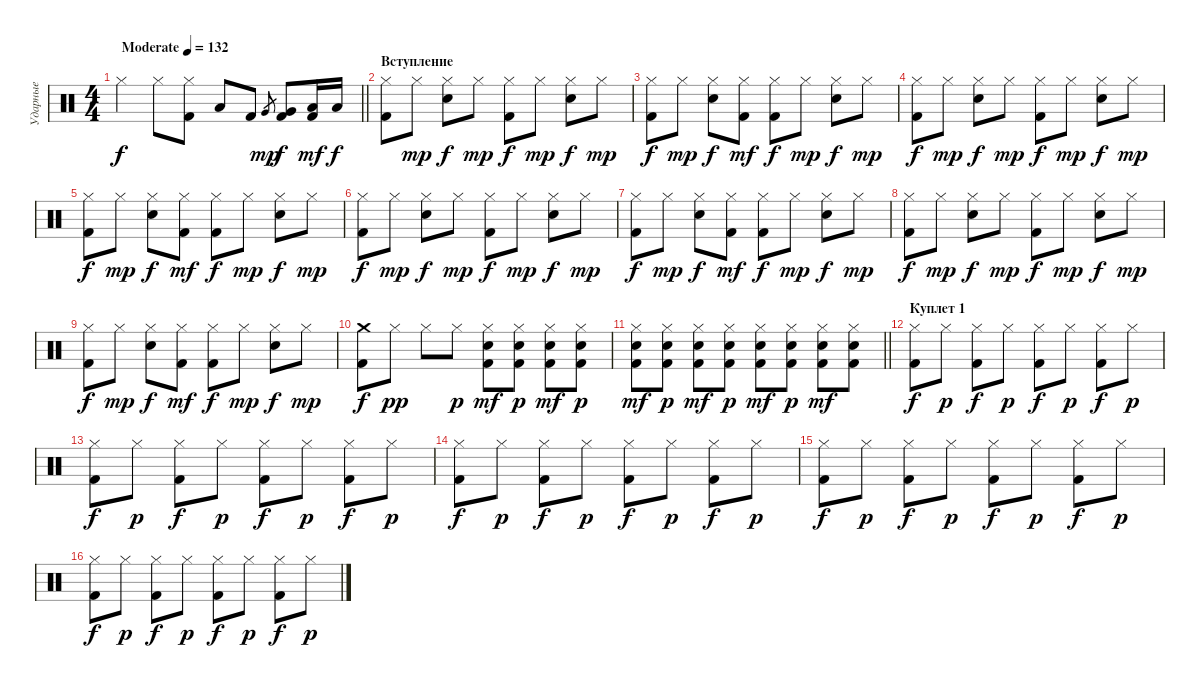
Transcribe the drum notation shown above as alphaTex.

\track ("Ударные" "Ударные") {instrument percussion}
\staff {score}
\articulation defaults
\ts (4 4)
\tempo (132 "Moderate")
\clef neutral
\barLineRight lightlight
\ks c "Hi-Hat (closed)".4{dy f} "Hi-Hat (closed)".8
("Hi-Hat (closed)" "Kick (hit) 2").8 "Low Tom (hit)".8 "Kick (hit) 2".8 "Very Low Tom (hit)".8{gr dy mp} ("Very Low Tom (hit)" "Kick (hit) 2").8{dy f} ("Low Floor Tom (hit)" "Kick (hit) 2").16{dy mf} "Low Floor Tom (hit)".16{dy f} |
\section ("" "Вступление")
("Hi-Hat (closed)" "Kick (hit) 2").8 "Hi-Hat (closed)".8{dy mp} ("Hi-Hat (closed)" "Snare (hit) 2").8{dy f} "Hi-Hat (closed)".8{dy mp} ("Hi-Hat (closed)" "Kick (hit) 2").8{dy f} "Hi-Hat (closed)".8{dy mp} ("Hi-Hat (closed)" "Snare (hit) 2").8{dy f} "Hi-Hat (closed)".8{dy mp} |
("Hi-Hat (closed)" "Kick (hit) 2").8{dy f} "Hi-Hat (closed)".8{dy mp} ("Hi-Hat (closed)" "Snare (hit) 2").8{dy f} ("Hi-Hat (closed)" "Kick (hit) 2").8{dy mf} ("Hi-Hat (closed)" "Kick (hit) 2").8{dy f} "Hi-Hat (closed)".8{dy mp} ("Hi-Hat (closed)" "Snare (hit) 2").8{dy f} "Hi-Hat (closed)".8{dy mp} |
("Hi-Hat (closed)" "Kick (hit) 2").8{dy f} "Hi-Hat (closed)".8{dy mp} ("Hi-Hat (closed)" "Snare (hit) 2").8{dy f} "Hi-Hat (closed)".8{dy mp} ("Hi-Hat (closed)" "Kick (hit) 2").8{dy f} "Hi-Hat (closed)".8{dy mp} ("Hi-Hat (closed)" "Snare (hit) 2").8{dy f} "Hi-Hat (closed)".8{dy mp} |
("Hi-Hat (closed)" "Kick (hit) 2").8{dy f} "Hi-Hat (closed)".8{dy mp} ("Hi-Hat (closed)" "Snare (hit) 2").8{dy f} ("Hi-Hat (closed)" "Kick (hit) 2").8{dy mf} ("Hi-Hat (closed)" "Kick (hit) 2").8{dy f} "Hi-Hat (closed)".8{dy mp} ("Hi-Hat (closed)" "Snare (hit) 2").8{dy f} "Hi-Hat (closed)".8{dy mp} |
("Hi-Hat (closed)" "Kick (hit) 2").8{dy f} "Hi-Hat (closed)".8{dy mp} ("Hi-Hat (closed)" "Snare (hit) 2").8{dy f} "Hi-Hat (closed)".8{dy mp} ("Hi-Hat (closed)" "Kick (hit) 2").8{dy f} "Hi-Hat (closed)".8{dy mp} ("Hi-Hat (closed)" "Snare (hit) 2").8{dy f} "Hi-Hat (closed)".8{dy mp} |
("Hi-Hat (closed)" "Kick (hit) 2").8{dy f} "Hi-Hat (closed)".8{dy mp} ("Hi-Hat (closed)" "Snare (hit) 2").8{dy f} ("Hi-Hat (closed)" "Kick (hit) 2").8{dy mf} ("Hi-Hat (closed)" "Kick (hit) 2").8{dy f} "Hi-Hat (closed)".8{dy mp} ("Hi-Hat (closed)" "Snare (hit) 2").8{dy f} "Hi-Hat (closed)".8{dy mp} |
("Hi-Hat (closed)" "Kick (hit) 2").8{dy f} "Hi-Hat (closed)".8{dy mp} ("Hi-Hat (closed)" "Snare (hit) 2").8{dy f} "Hi-Hat (closed)".8{dy mp} ("Hi-Hat (closed)" "Kick (hit) 2").8{dy f} "Hi-Hat (closed)".8{dy mp} ("Hi-Hat (closed)" "Snare (hit) 2").8{dy f} "Hi-Hat (closed)".8{dy mp} |
("Hi-Hat (closed)" "Kick (hit) 2").8{dy f} "Hi-Hat (closed)".8{dy mp} ("Hi-Hat (closed)" "Snare (hit) 2").8{dy f} ("Hi-Hat (closed)" "Kick (hit) 2").8{dy mf} ("Hi-Hat (closed)" "Kick (hit) 2").8{dy f} "Hi-Hat (closed)".8{dy mp} ("Hi-Hat (closed)" "Snare (hit) 2").8{dy f} "Hi-Hat (closed)".8{dy mp} |
("Crash medium (hit)" "Kick (hit) 2").8{dy f} "Hi-Hat (closed)".8{dy pp} "Hi-Hat (closed)".8 "Hi-Hat (closed)".8{dy p} ("Snare (hit) 2" "Kick (hit) 2" "Hi-Hat (closed)").8{dy mf} ("Snare (hit) 2" "Kick (hit) 2" "Hi-Hat (closed)").8{dy p} ("Snare (hit) 2" "Kick (hit) 2" "Hi-Hat (closed)").8{dy mf} ("Snare (hit) 2" "Kick (hit) 2" "Hi-Hat (closed)").8{dy p} |
\barLineRight lightlight
("Snare (hit) 2" "Kick (hit) 2" "Hi-Hat (closed)").8{dy mf} ("Snare (hit) 2" "Kick (hit) 2" "Hi-Hat (closed)").8{dy p} ("Snare (hit) 2" "Kick (hit) 2" "Hi-Hat (closed)").8{dy mf} ("Snare (hit) 2" "Kick (hit) 2" "Hi-Hat (closed)").8{dy p} ("Snare (hit) 2" "Kick (hit) 2" "Hi-Hat (closed)").8{dy mf} ("Snare (hit) 2" "Kick (hit) 2" "Hi-Hat (closed)").8{dy p} ("Snare (hit) 2" "Kick (hit) 2" "Hi-Hat (closed)").8{dy mf} ("Snare (hit) 2" "Kick (hit) 2" "Hi-Hat (closed)").8 |
\section ("" "Куплет 1")
("Hi-Hat (closed)" "Kick (hit) 2").8{dy f} "Hi-Hat (closed)".8{dy p} ("Hi-Hat (closed)" "Kick (hit) 2").8{dy f} "Hi-Hat (closed)".8{dy p} ("Hi-Hat (closed)" "Kick (hit) 2").8{dy f} "Hi-Hat (closed)".8{dy p} ("Hi-Hat (closed)" "Kick (hit) 2").8{dy f} "Hi-Hat (closed)".8{dy p} |
("Hi-Hat (closed)" "Kick (hit) 2").8{dy f} "Hi-Hat (closed)".8{dy p} ("Hi-Hat (closed)" "Kick (hit) 2").8{dy f} "Hi-Hat (closed)".8{dy p} ("Hi-Hat (closed)" "Kick (hit) 2").8{dy f} "Hi-Hat (closed)".8{dy p} ("Hi-Hat (closed)" "Kick (hit) 2").8{dy f} "Hi-Hat (closed)".8{dy p} |
("Hi-Hat (closed)" "Kick (hit) 2").8{dy f} "Hi-Hat (closed)".8{dy p} ("Hi-Hat (closed)" "Kick (hit) 2").8{dy f} "Hi-Hat (closed)".8{dy p} ("Hi-Hat (closed)" "Kick (hit) 2").8{dy f} "Hi-Hat (closed)".8{dy p} ("Hi-Hat (closed)" "Kick (hit) 2").8{dy f} "Hi-Hat (closed)".8{dy p} |
("Hi-Hat (closed)" "Kick (hit) 2").8{dy f} "Hi-Hat (closed)".8{dy p} ("Hi-Hat (closed)" "Kick (hit) 2").8{dy f} "Hi-Hat (closed)".8{dy p} ("Hi-Hat (closed)" "Kick (hit) 2").8{dy f} "Hi-Hat (closed)".8{dy p} ("Hi-Hat (closed)" "Kick (hit) 2").8{dy f} "Hi-Hat (closed)".8{dy p} |
("Hi-Hat (closed)" "Kick (hit) 2").8{dy f} "Hi-Hat (closed)".8{dy p} ("Hi-Hat (closed)" "Kick (hit) 2").8{dy f} "Hi-Hat (closed)".8{dy p} ("Hi-Hat (closed)" "Kick (hit) 2").8{dy f} "Hi-Hat (closed)".8{dy p} ("Hi-Hat (closed)" "Kick (hit) 2").8{dy f} "Hi-Hat (closed)".8{dy p}
